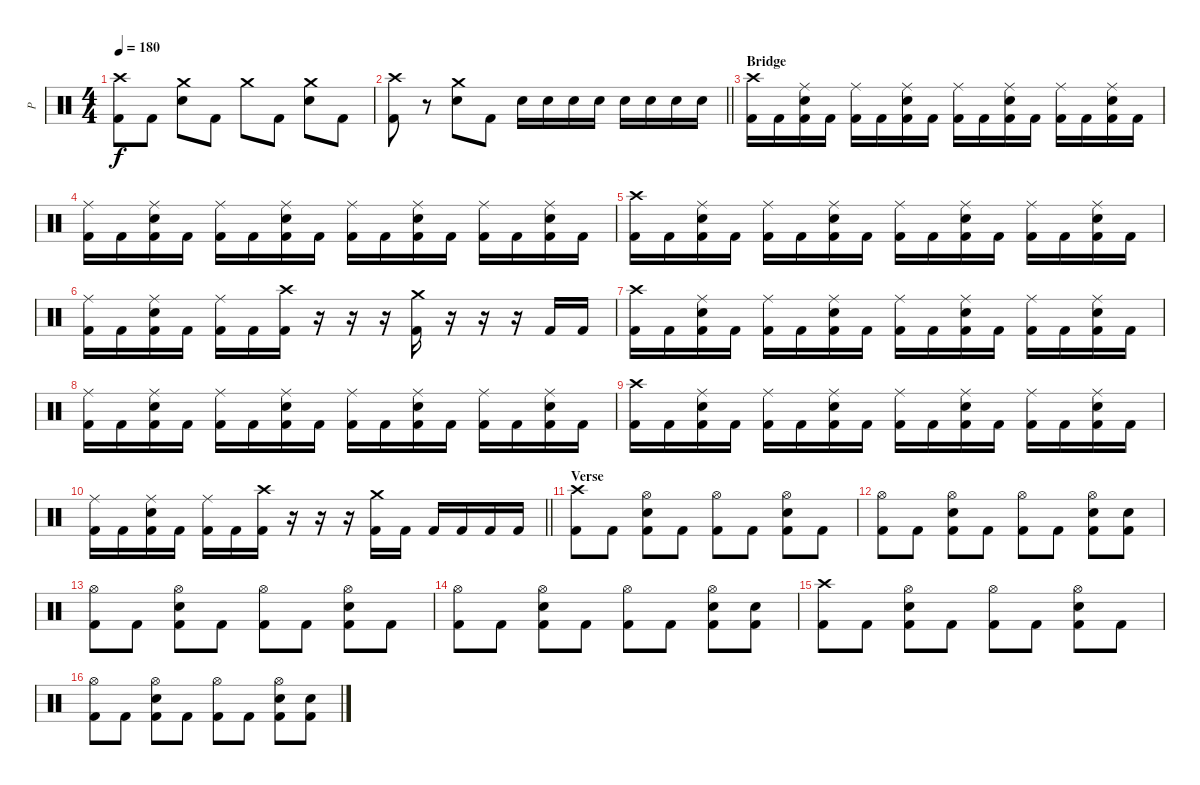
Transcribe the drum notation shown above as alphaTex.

\track ("P" "P") {instrument percussion}
\staff {score}
\articulation defaults
\ts (4 4)
\tempo 180
\clef neutral
\ks c
("Crash high (hit)" "Kick (hit) 2").8{dy f} "Kick (hit) 2".8 ("Crash medium (hit)" "Electric Snare (hit)").8 "Kick (hit) 2".8 "Crash medium (hit)".8 "Kick (hit) 2".8 ("Crash medium (hit)" "Electric Snare (hit)").8 "Kick (hit) 2".8 |
\barLineRight lightlight
("Crash high (hit)" "Kick (hit) 2").8 r.8 ("Crash medium (hit)" "Electric Snare (hit)").8 "Kick (hit) 2".8 "Electric Snare (hit)".16 "Electric Snare (hit)".16 "Electric Snare (hit)".16 "Electric Snare (hit)".16 "Electric Snare (hit)".16 "Electric Snare (hit)".16 "Electric Snare (hit)".16 "Electric Snare (hit)".16 |
\section ("" "Bridge")
("Crash high (hit)" "Kick (hit) 2").16 "Kick (hit) 2".16 ("Ride (middle)" "Electric Snare (hit)" "Kick (hit) 2").16 "Kick (hit) 2".16 ("Ride (middle)" "Kick (hit) 2").16 "Kick (hit) 2".16 ("Ride (middle)" "Electric Snare (hit)" "Kick (hit) 2").16 "Kick (hit) 2".16 ("Ride (middle)" "Kick (hit) 2").16 "Kick (hit) 2".16 ("Ride (middle)" "Electric Snare (hit)" "Kick (hit) 2").16 "Kick (hit) 2".16 ("Ride (middle)" "Kick (hit) 2").16 "Kick (hit) 2".16 ("Ride (middle)" "Electric Snare (hit)" "Kick (hit) 2").16 "Kick (hit) 2".16 |
("Ride (middle)" "Kick (hit) 2").16 "Kick (hit) 2".16 ("Ride (middle)" "Electric Snare (hit)" "Kick (hit) 2").16 "Kick (hit) 2".16 ("Ride (middle)" "Kick (hit) 2").16 "Kick (hit) 2".16 ("Ride (middle)" "Electric Snare (hit)" "Kick (hit) 2").16 "Kick (hit) 2".16 ("Ride (middle)" "Kick (hit) 2").16 "Kick (hit) 2".16 ("Ride (middle)" "Electric Snare (hit)" "Kick (hit) 2").16 "Kick (hit) 2".16 ("Ride (middle)" "Kick (hit) 2").16 "Kick (hit) 2".16 ("Ride (middle)" "Electric Snare (hit)" "Kick (hit) 2").16 "Kick (hit) 2".16 |
("Crash high (hit)" "Kick (hit) 2").16 "Kick (hit) 2".16 ("Ride (middle)" "Electric Snare (hit)" "Kick (hit) 2").16 "Kick (hit) 2".16 ("Ride (middle)" "Kick (hit) 2").16 "Kick (hit) 2".16 ("Ride (middle)" "Electric Snare (hit)" "Kick (hit) 2").16 "Kick (hit) 2".16 ("Ride (middle)" "Kick (hit) 2").16 "Kick (hit) 2".16 ("Ride (middle)" "Electric Snare (hit)" "Kick (hit) 2").16 "Kick (hit) 2".16 ("Ride (middle)" "Kick (hit) 2").16 "Kick (hit) 2".16 ("Ride (middle)" "Electric Snare (hit)" "Kick (hit) 2").16 "Kick (hit) 2".16 |
("Ride (middle)" "Kick (hit) 2").16 "Kick (hit) 2".16 ("Ride (middle)" "Electric Snare (hit)" "Kick (hit) 2").16 "Kick (hit) 2".16 ("Ride (middle)" "Kick (hit) 2").16 "Kick (hit) 2".16 ("Crash high (hit)" "Kick (hit) 2").16 r.16 r.16 r.16 ("Crash medium (hit)" "Kick (hit) 2").16 r.16 r.16 r.16 "Kick (hit) 2".16 "Kick (hit) 2".16 |
("Crash high (hit)" "Kick (hit) 2").16 "Kick (hit) 2".16 ("Ride (middle)" "Electric Snare (hit)" "Kick (hit) 2").16 "Kick (hit) 2".16 ("Ride (middle)" "Kick (hit) 2").16 "Kick (hit) 2".16 ("Ride (middle)" "Electric Snare (hit)" "Kick (hit) 2").16 "Kick (hit) 2".16 ("Ride (middle)" "Kick (hit) 2").16 "Kick (hit) 2".16 ("Ride (middle)" "Electric Snare (hit)" "Kick (hit) 2").16 "Kick (hit) 2".16 ("Ride (middle)" "Kick (hit) 2").16 "Kick (hit) 2".16 ("Ride (middle)" "Electric Snare (hit)" "Kick (hit) 2").16 "Kick (hit) 2".16 |
("Ride (middle)" "Kick (hit) 2").16 "Kick (hit) 2".16 ("Ride (middle)" "Electric Snare (hit)" "Kick (hit) 2").16 "Kick (hit) 2".16 ("Ride (middle)" "Kick (hit) 2").16 "Kick (hit) 2".16 ("Ride (middle)" "Electric Snare (hit)" "Kick (hit) 2").16 "Kick (hit) 2".16 ("Ride (middle)" "Kick (hit) 2").16 "Kick (hit) 2".16 ("Ride (middle)" "Electric Snare (hit)" "Kick (hit) 2").16 "Kick (hit) 2".16 ("Ride (middle)" "Kick (hit) 2").16 "Kick (hit) 2".16 ("Ride (middle)" "Electric Snare (hit)" "Kick (hit) 2").16 "Kick (hit) 2".16 |
("Crash high (hit)" "Kick (hit) 2").16 "Kick (hit) 2".16 ("Ride (middle)" "Electric Snare (hit)" "Kick (hit) 2").16 "Kick (hit) 2".16 ("Ride (middle)" "Kick (hit) 2").16 "Kick (hit) 2".16 ("Ride (middle)" "Electric Snare (hit)" "Kick (hit) 2").16 "Kick (hit) 2".16 ("Ride (middle)" "Kick (hit) 2").16 "Kick (hit) 2".16 ("Ride (middle)" "Electric Snare (hit)" "Kick (hit) 2").16 "Kick (hit) 2".16 ("Ride (middle)" "Kick (hit) 2").16 "Kick (hit) 2".16 ("Ride (middle)" "Electric Snare (hit)" "Kick (hit) 2").16 "Kick (hit) 2".16 |
\barLineRight lightlight
("Ride (middle)" "Kick (hit) 2").16 "Kick (hit) 2".16 ("Ride (middle)" "Electric Snare (hit)" "Kick (hit) 2").16 "Kick (hit) 2".16 ("Ride (middle)" "Kick (hit) 2").16 "Kick (hit) 2".16 ("Crash high (hit)" "Kick (hit) 2").16 r.16 r.16 r.16 ("Crash medium (hit)" "Kick (hit) 2").16 "Kick (hit) 2".16 "Kick (hit) 2".16 "Kick (hit) 2".16 "Kick (hit) 2".16 "Kick (hit) 2".16 |
\section ("" "Verse")
("Crash high (hit)" "Kick (hit) 2").8 "Kick (hit) 2".8 ("Hi-Hat (open)" "Electric Snare (hit)" "Kick (hit) 2").8 "Kick (hit) 2".8 ("Hi-Hat (open)" "Kick (hit) 2").8 "Kick (hit) 2".8 ("Hi-Hat (open)" "Electric Snare (hit)" "Kick (hit) 2").8 "Kick (hit) 2".8 |
("Hi-Hat (open)" "Kick (hit) 2").8 "Kick (hit) 2".8 ("Hi-Hat (open)" "Electric Snare (hit)" "Kick (hit) 2").8 "Kick (hit) 2".8 ("Hi-Hat (open)" "Kick (hit) 2").8 "Kick (hit) 2".8 ("Hi-Hat (open)" "Electric Snare (hit)" "Kick (hit) 2").8 ("Electric Snare (hit)" "Kick (hit) 2").8 |
("Hi-Hat (open)" "Kick (hit) 2").8 "Kick (hit) 2".8 ("Hi-Hat (open)" "Electric Snare (hit)" "Kick (hit) 2").8 "Kick (hit) 2".8 ("Hi-Hat (open)" "Kick (hit) 2").8 "Kick (hit) 2".8 ("Hi-Hat (open)" "Electric Snare (hit)" "Kick (hit) 2").8 "Kick (hit) 2".8 |
("Hi-Hat (open)" "Kick (hit) 2").8 "Kick (hit) 2".8 ("Hi-Hat (open)" "Electric Snare (hit)" "Kick (hit) 2").8 "Kick (hit) 2".8 ("Hi-Hat (open)" "Kick (hit) 2").8 "Kick (hit) 2".8 ("Hi-Hat (open)" "Electric Snare (hit)" "Kick (hit) 2").8 ("Electric Snare (hit)" "Kick (hit) 2").8 |
("Crash high (hit)" "Kick (hit) 2").8 "Kick (hit) 2".8 ("Hi-Hat (open)" "Electric Snare (hit)" "Kick (hit) 2").8 "Kick (hit) 2".8 ("Hi-Hat (open)" "Kick (hit) 2").8 "Kick (hit) 2".8 ("Hi-Hat (open)" "Electric Snare (hit)" "Kick (hit) 2").8 "Kick (hit) 2".8 |
("Hi-Hat (open)" "Kick (hit) 2").8 "Kick (hit) 2".8 ("Hi-Hat (open)" "Electric Snare (hit)" "Kick (hit) 2").8 "Kick (hit) 2".8 ("Hi-Hat (open)" "Kick (hit) 2").8 "Kick (hit) 2".8 ("Hi-Hat (open)" "Electric Snare (hit)" "Kick (hit) 2").8 ("Electric Snare (hit)" "Kick (hit) 2").8
